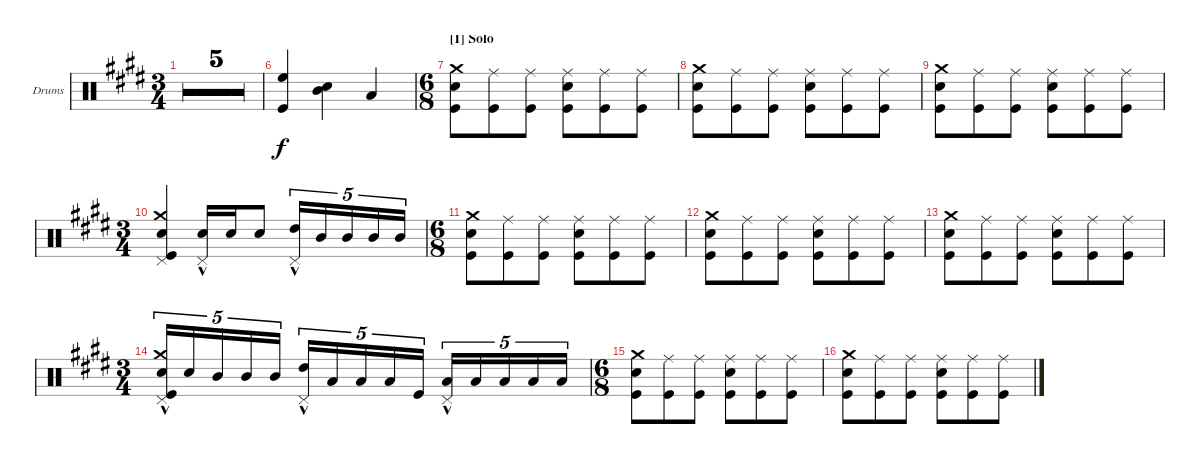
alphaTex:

\defaultSystemsLayout 4
\bracketExtendMode groupsimilarinstruments
\firstSystemTrackNameOrientation horizontal
\otherSystemsTrackNameOrientation horizontal
\track ("Dave Grohl (Drums)" "Drums") {multiBarRest instrument percussion}
\staff {score}
\articulation defaults
\ts (3 4)
\tempo
165.176
\accidentals auto
\clef neutral
\ottava regular
\simile firstofdouble
\ks e
|
\simile secondofdouble
|
\simile firstofdouble
|
\simile secondofdouble
|
\simile simple
|
\simile none
("High Floor Tom (hit)" "Kick (hit)").4{dy f} ("Snare (hit) 2" "Mid Tom (hit)").4 "Low Tom (hit)".4 |
\ts (6 8)
\section ("I" "Solo")
("Snare (hit) 2" "Crash medium (hit)" "Kick (hit)").8 ("Ride (middle)" "Kick (hit)").8 ("Ride (middle)" "Kick (hit)").8 ("Snare (hit) 2" "Ride (middle)" "Kick (hit)").8 ("Ride (middle)" "Kick (hit)").8 ("Ride (middle)" "Kick (hit)").8 |
("Snare (hit) 2" "Crash medium (hit)" "Kick (hit)").8 ("Ride (middle)" "Kick (hit)").8 ("Ride (middle)" "Kick (hit)").8 ("Snare (hit) 2" "Ride (middle)" "Kick (hit)").8 ("Ride (middle)" "Kick (hit)").8 ("Ride (middle)" "Kick (hit)").8 |
("Snare (hit) 2" "Crash medium (hit)" "Kick (hit)").8 ("Ride (middle)" "Kick (hit)").8 ("Ride (middle)" "Kick (hit)").8 ("Snare (hit) 2" "Ride (middle)" "Kick (hit)").8 ("Ride (middle)" "Kick (hit)").8 ("Ride (middle)" "Kick (hit)").8 |
\ts (3 4)
("Snare (hit) 2" "Crash medium (hit)" "Kick (hit)" "Pedal Hi-Hat (hit)").4 ("Snare (hit) 2"{hac} "Pedal Hi-Hat (hit)").16 "Snare (hit) 2".16 "Snare (hit) 2".8 ("High Tom (hit)"{hac} "Pedal Hi-Hat (hit)").16{tu (5 4)} "Mid Tom (hit)".16{tu (5 4)} "Mid Tom (hit)".16{tu (5 4)} "Mid Tom (hit)".16{tu (5 4)} "Mid Tom (hit)".16{tu (5 4)} |
\ts (6 8)
("Snare (hit) 2" "Crash medium (hit)" "Kick (hit)").8 ("Ride (middle)" "Kick (hit)").8 ("Ride (middle)" "Kick (hit)").8 ("Snare (hit) 2" "Ride (middle)" "Kick (hit)").8 ("Ride (middle)" "Kick (hit)").8 ("Ride (middle)" "Kick (hit)").8 |
("Snare (hit) 2" "Crash medium (hit)" "Kick (hit)").8 ("Ride (middle)" "Kick (hit)").8 ("Ride (middle)" "Kick (hit)").8 ("Snare (hit) 2" "Ride (middle)" "Kick (hit)").8 ("Ride (middle)" "Kick (hit)").8 ("Ride (middle)" "Kick (hit)").8 |
("Snare (hit) 2" "Crash medium (hit)" "Kick (hit)").8 ("Ride (middle)" "Kick (hit)").8 ("Ride (middle)" "Kick (hit)").8 ("Snare (hit) 2" "Ride (middle)" "Kick (hit)").8 ("Ride (middle)" "Kick (hit)").8 ("Ride (middle)" "Kick (hit)").8 |
\ts (3 4)
("Snare (hit) 2"{hac} "Crash medium (hit)" "Kick (hit)" "Pedal Hi-Hat (hit)").16{tu (5 4)} "Snare (hit) 2".16{tu (5 4)} "Mid Tom (hit)".16{tu (5 4)} "Mid Tom (hit)".16{tu (5 4)} "Mid Tom (hit)".16{tu (5 4)} ("High Tom (hit)"{hac} "Pedal Hi-Hat (hit)").16{tu (5 4)} "Low Tom (hit)".16{tu (5 4)} "Low Tom (hit)".16{tu (5 4)} "Low Tom (hit)".16{tu (5 4)} "Kick (hit)".16{tu (5 4)} ("Low Tom (hit)"{hac} "Pedal Hi-Hat (hit)").16{tu (5 4)} "Low Tom (hit)".16{tu (5 4)} "Low Tom (hit)".16{tu (5 4)} "Low Tom (hit)".16{tu (5 4)} "Low Tom (hit)".16{tu (5 4)} |
\ts (6 8)
("Snare (hit) 2" "Crash medium (hit)" "Kick (hit)").8 ("Ride (middle)" "Kick (hit)").8 ("Ride (middle)" "Kick (hit)").8 ("Snare (hit) 2" "Ride (middle)" "Kick (hit)").8 ("Ride (middle)" "Kick (hit)").8 ("Ride (middle)" "Kick (hit)").8 |
("Snare (hit) 2" "Crash medium (hit)" "Kick (hit)").8 ("Ride (middle)" "Kick (hit)").8 ("Ride (middle)" "Kick (hit)").8 ("Snare (hit) 2" "Ride (middle)" "Kick (hit)").8 ("Ride (middle)" "Kick (hit)").8 ("Ride (middle)" "Kick (hit)").8
